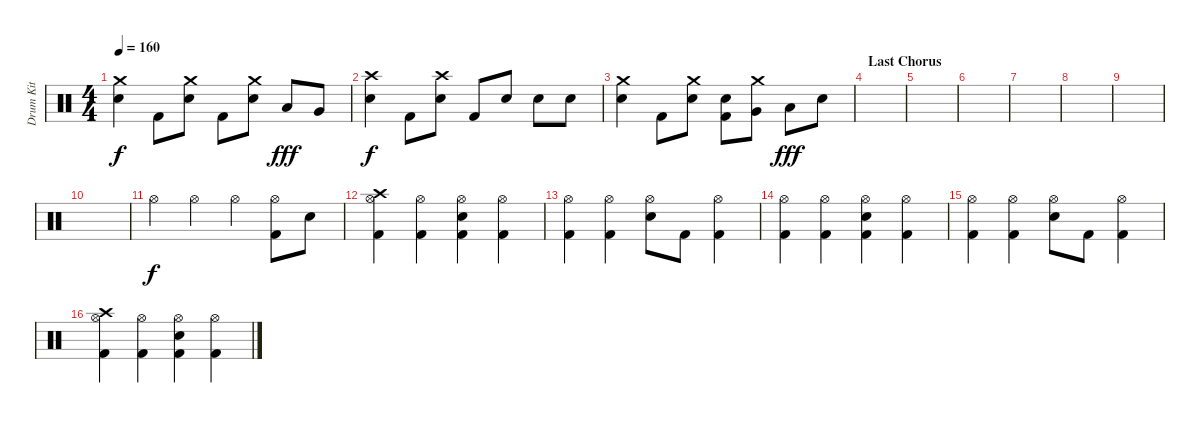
\track ("Drum Kit" "Drum Kit") {instrument percussion}
\staff {score}
\articulation defaults
\ts (4 4)
\tempo 160
\clef neutral
\ks c
("Crash medium (hit)" "Electric Snare (hit)").4{dy f} "Kick (hit) 2".8 ("Crash medium (hit)" "Electric Snare (hit)").8 "Kick (hit) 2".8 ("Crash medium (hit)" "Electric Snare (hit)").8 "Low Tom (hit)".8{dy fff} "Very Low Tom (hit)".8 |
("Crash high (hit)" "Electric Snare (hit)").4{dy f} "Kick (hit) 2".8 ("Crash high (hit)" "Electric Snare (hit)").8 "Kick (hit) 2".8 "Electric Snare (hit)".8 "Electric Snare (hit)".8 "Electric Snare (hit)".8 |
("Crash medium (hit)" "Electric Snare (hit)").4 "Kick (hit) 2".8 ("Crash medium (hit)" "Electric Snare (hit)").8 ("Electric Snare (hit)" "Kick (hit) 2").8 ("Crash medium (hit)" "Very Low Tom (hit)").8 "Low Tom (hit)".8{dy fff} "Electric Snare (hit)".8 |
\section ("" "Last Chorus")
|
|
|
|
|
|
|
"Hi-Hat (open)".4{dy f} "Hi-Hat (open)".4 "Hi-Hat (open)".4 ("Hi-Hat (open)" "Kick (hit) 2").8 "Electric Snare (hit)".8 |
("Crash high (hit)" "Hi-Hat (open)" "Kick (hit) 2").4 ("Hi-Hat (open)" "Kick (hit) 2").4 ("Hi-Hat (open)" "Electric Snare (hit)" "Kick (hit) 2").4 ("Hi-Hat (open)" "Kick (hit) 2").4 |
("Hi-Hat (open)" "Kick (hit) 2").4 ("Hi-Hat (open)" "Kick (hit) 2").4 ("Hi-Hat (open)" "Electric Snare (hit)").8 "Kick (hit) 2".8 ("Hi-Hat (open)" "Kick (hit) 2").4 |
("Hi-Hat (open)" "Kick (hit) 2").4 ("Hi-Hat (open)" "Kick (hit) 2").4 ("Hi-Hat (open)" "Electric Snare (hit)" "Kick (hit) 2").4 ("Hi-Hat (open)" "Kick (hit) 2").4 |
("Hi-Hat (open)" "Kick (hit) 2").4 ("Hi-Hat (open)" "Kick (hit) 2").4 ("Hi-Hat (open)" "Electric Snare (hit)").8 "Kick (hit) 2".8 ("Hi-Hat (open)" "Kick (hit) 2").4 |
("Crash high (hit)" "Hi-Hat (open)" "Kick (hit) 2").4 ("Hi-Hat (open)" "Kick (hit) 2").4 ("Hi-Hat (open)" "Electric Snare (hit)" "Kick (hit) 2").4 ("Hi-Hat (open)" "Kick (hit) 2").4
